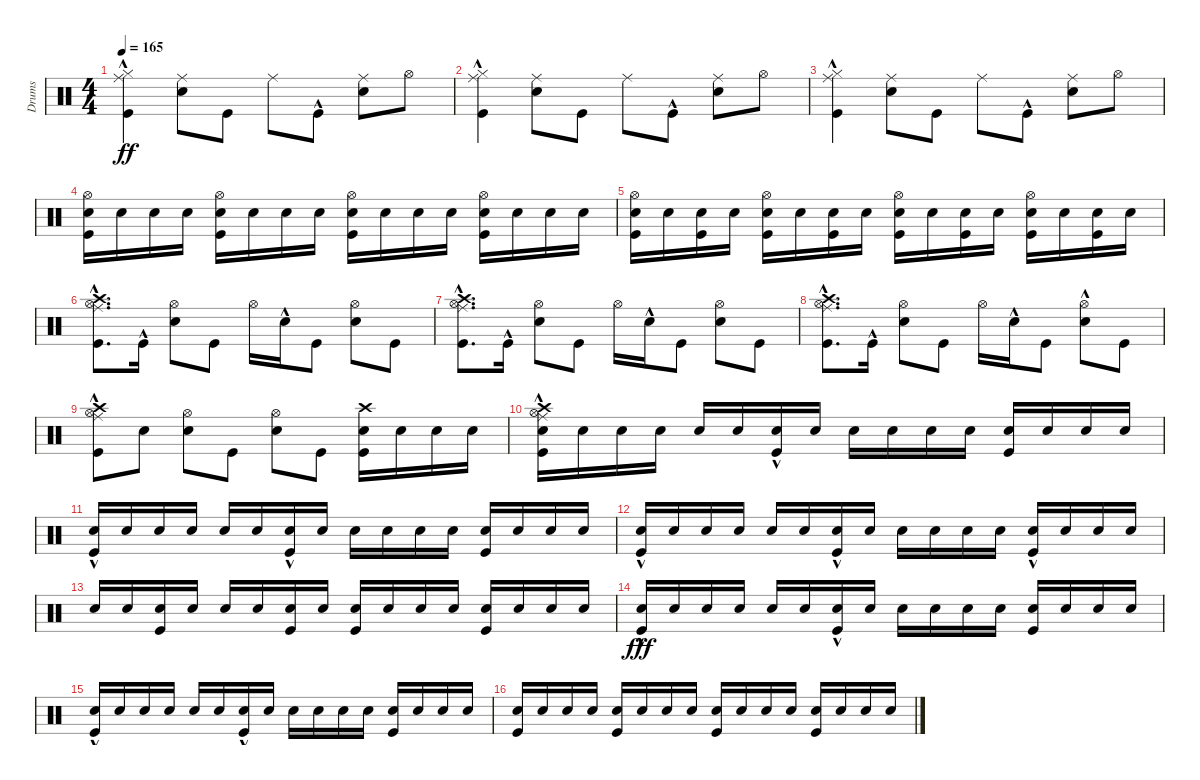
\track ("Drums" "Drums") {instrument percussion}
\staff {score}
\articulation defaults
\ts (4 4)
\tempo 165
\clef neutral
\ks c
("Kick (hit)"{hac} "Hi-Hat (closed)" "Ride (middle)").4{dy ff} ("Snare (hit) 2" "Ride (middle)").8 "Kick (hit)".8 "Ride (middle)".8 "Kick (hit)"{hac}.8 ("Snare (hit) 2" "Ride (middle)").8 "Hi-Hat (open)".8 |
("Kick (hit)"{hac} "Hi-Hat (closed)" "Ride (middle)").4 ("Snare (hit) 2" "Ride (middle)").8 "Kick (hit)".8 "Ride (middle)".8 "Kick (hit)"{hac}.8 ("Snare (hit) 2" "Ride (middle)").8 "Hi-Hat (open)".8 |
("Kick (hit)"{hac} "Hi-Hat (closed)" "Ride (middle)").4 ("Snare (hit) 2" "Ride (middle)").8 "Kick (hit)".8 "Ride (middle)".8 "Kick (hit)"{hac}.8 ("Snare (hit) 2" "Ride (middle)").8 "Hi-Hat (open)".8 |
("Kick (hit)" "Snare (hit) 2" "Hi-Hat (open)").16 "Snare (hit) 2".16 "Snare (hit) 2".16 "Snare (hit) 2".16 ("Kick (hit)" "Snare (hit) 2" "Hi-Hat (open)").16 "Snare (hit) 2".16 "Snare (hit) 2".16 "Snare (hit) 2".16 ("Kick (hit)" "Snare (hit) 2" "Hi-Hat (open)").16 "Snare (hit) 2".16 "Snare (hit) 2".16 "Snare (hit) 2".16 ("Kick (hit)" "Snare (hit) 2" "Hi-Hat (open)").16 "Snare (hit) 2".16 "Snare (hit) 2".16 "Snare (hit) 2".16 |
("Kick (hit)" "Snare (hit) 2" "Hi-Hat (open)").16 "Snare (hit) 2".16 ("Kick (hit)" "Snare (hit) 2").16 "Snare (hit) 2".16 ("Kick (hit)" "Snare (hit) 2" "Hi-Hat (open)").16 "Snare (hit) 2".16 ("Kick (hit)" "Snare (hit) 2").16 "Snare (hit) 2".16 ("Kick (hit)" "Snare (hit) 2" "Hi-Hat (open)").16 "Snare (hit) 2".16 ("Kick (hit)" "Snare (hit) 2").16 "Snare (hit) 2".16 ("Kick (hit)" "Snare (hit) 2" "Hi-Hat (open)").16 "Snare (hit) 2".16 ("Kick (hit)" "Snare (hit) 2").16 "Snare (hit) 2".16 |
("Kick (hit)"{hac} "Hi-Hat (open)" "Ride (middle)" "Crash high (hit)").8{d} "Kick (hit)"{hac}.16 ("Snare (hit) 2" "Hi-Hat (open)").8 "Kick (hit)".8 "Hi-Hat (open)".16 "Snare (hit) 2"{hac}.16 "Kick (hit)".8 ("Snare (hit) 2" "Hi-Hat (open)").8 "Kick (hit)".8 |
("Kick (hit)"{hac} "Hi-Hat (open)" "Ride (middle)" "Crash high (hit)").8{d} "Kick (hit)"{hac}.16 ("Snare (hit) 2" "Hi-Hat (open)").8 "Kick (hit)".8 "Hi-Hat (open)".16 "Snare (hit) 2"{hac}.16 "Kick (hit)".8 ("Snare (hit) 2" "Hi-Hat (open)").8 "Kick (hit)".8 |
("Kick (hit)"{hac} "Hi-Hat (open)" "Ride (middle)" "Crash high (hit)").8{d} "Kick (hit)"{hac}.16 ("Snare (hit) 2" "Hi-Hat (open)").8 "Kick (hit)".8 "Hi-Hat (open)".16 "Snare (hit) 2"{hac}.16 "Kick (hit)".8 ("Snare (hit) 2"{hac} "Hi-Hat (open)").8 "Kick (hit)".8 |
("Kick (hit)"{hac} "Hi-Hat (open)" "Ride (middle)" "Crash high (hit)"{hac}).8 "Snare (hit) 2".8 ("Snare (hit) 2" "Hi-Hat (open)").8 "Kick (hit)".8 ("Snare (hit) 2" "Hi-Hat (open)").8 "Kick (hit)".8 ("Kick (hit)" "Snare (hit) 2" "Crash high (hit)").16 "Snare (hit) 2".16 "Snare (hit) 2".16 "Snare (hit) 2".16 |
("Kick (hit)"{hac} "Snare (hit) 2" "Hi-Hat (open)" "Ride (middle)" "Crash high (hit)").16 "Snare (hit) 2".16 "Snare (hit) 2".16 "Snare (hit) 2".16 "Snare (hit) 2".16 "Snare (hit) 2".16 ("Kick (hit)"{hac} "Snare (hit) 2").16 "Snare (hit) 2".16 "Snare (hit) 2".16 "Snare (hit) 2".16 "Snare (hit) 2".16 "Snare (hit) 2".16 ("Kick (hit)" "Snare (hit) 2").16 "Snare (hit) 2".16 "Snare (hit) 2".16 "Snare (hit) 2".16 |
("Kick (hit)"{hac} "Snare (hit) 2").16 "Snare (hit) 2".16 "Snare (hit) 2".16 "Snare (hit) 2".16 "Snare (hit) 2".16 "Snare (hit) 2".16 ("Kick (hit)"{hac} "Snare (hit) 2").16 "Snare (hit) 2".16 "Snare (hit) 2".16 "Snare (hit) 2".16 "Snare (hit) 2".16 "Snare (hit) 2".16 ("Kick (hit)" "Snare (hit) 2").16 "Snare (hit) 2".16 "Snare (hit) 2".16 "Snare (hit) 2".16 |
("Kick (hit)"{hac} "Snare (hit) 2").16 "Snare (hit) 2".16 "Snare (hit) 2".16 "Snare (hit) 2".16 "Snare (hit) 2".16 "Snare (hit) 2".16 ("Kick (hit)"{hac} "Snare (hit) 2").16 "Snare (hit) 2".16 "Snare (hit) 2".16 "Snare (hit) 2".16 "Snare (hit) 2".16 "Snare (hit) 2".16 ("Kick (hit)"{hac} "Snare (hit) 2").16 "Snare (hit) 2".16 "Snare (hit) 2".16 "Snare (hit) 2".16 |
"Snare (hit) 2".16 "Snare (hit) 2".16 ("Kick (hit)" "Snare (hit) 2").16 "Snare (hit) 2".16 "Snare (hit) 2".16 "Snare (hit) 2".16 ("Kick (hit)" "Snare (hit) 2").16 "Snare (hit) 2".16 ("Kick (hit)" "Snare (hit) 2").16 "Snare (hit) 2".16 "Snare (hit) 2".16 "Snare (hit) 2".16 ("Kick (hit)" "Snare (hit) 2").16 "Snare (hit) 2".16 "Snare (hit) 2".16 "Snare (hit) 2".16 |
("Kick (hit)"{hac} "Snare (hit) 2").16{dy fff} "Snare (hit) 2".16 "Snare (hit) 2".16 "Snare (hit) 2".16 "Snare (hit) 2".16 "Snare (hit) 2".16 ("Kick (hit)"{hac} "Snare (hit) 2").16 "Snare (hit) 2".16 "Snare (hit) 2".16 "Snare (hit) 2".16 "Snare (hit) 2".16 "Snare (hit) 2".16 ("Kick (hit)" "Snare (hit) 2").16 "Snare (hit) 2".16 "Snare (hit) 2".16 "Snare (hit) 2".16 |
("Kick (hit)"{hac} "Snare (hit) 2").16 "Snare (hit) 2".16 "Snare (hit) 2".16 "Snare (hit) 2".16 "Snare (hit) 2".16 "Snare (hit) 2".16 ("Kick (hit)"{hac} "Snare (hit) 2").16 "Snare (hit) 2".16 "Snare (hit) 2".16 "Snare (hit) 2".16 "Snare (hit) 2".16 "Snare (hit) 2".16 ("Kick (hit)" "Snare (hit) 2").16 "Snare (hit) 2".16 "Snare (hit) 2".16 "Snare (hit) 2".16 |
("Kick (hit)" "Snare (hit) 2").16 "Snare (hit) 2".16 "Snare (hit) 2".16 "Snare (hit) 2".16 ("Kick (hit)" "Snare (hit) 2").16 "Snare (hit) 2".16 "Snare (hit) 2".16 "Snare (hit) 2".16 ("Kick (hit)" "Snare (hit) 2").16 "Snare (hit) 2".16 "Snare (hit) 2".16 "Snare (hit) 2".16 ("Kick (hit)" "Snare (hit) 2").16 "Snare (hit) 2".16 "Snare (hit) 2".16 "Snare (hit) 2".16
